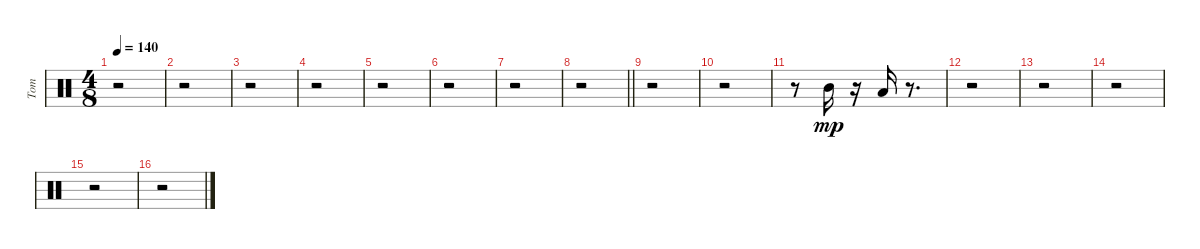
\track ("Tom" "Tom") {instrument percussion}
\staff {score}
\articulation defaults
\ts (4 8)
\tempo 140
\clef neutral
\ks c
r.2{dy mp} |
r.2 |
r.2 |
r.2 |
r.2 |
r.2 |
r.2 |
\barLineRight lightlight
r.2 |
r.2 |
r.2 |
r.8 "Mid Tom (hit)".16 r.16 "Low Tom (hit)".16 r.8{d} |
r.2 |
r.2 |
r.2 |
r.2 |
r.2
